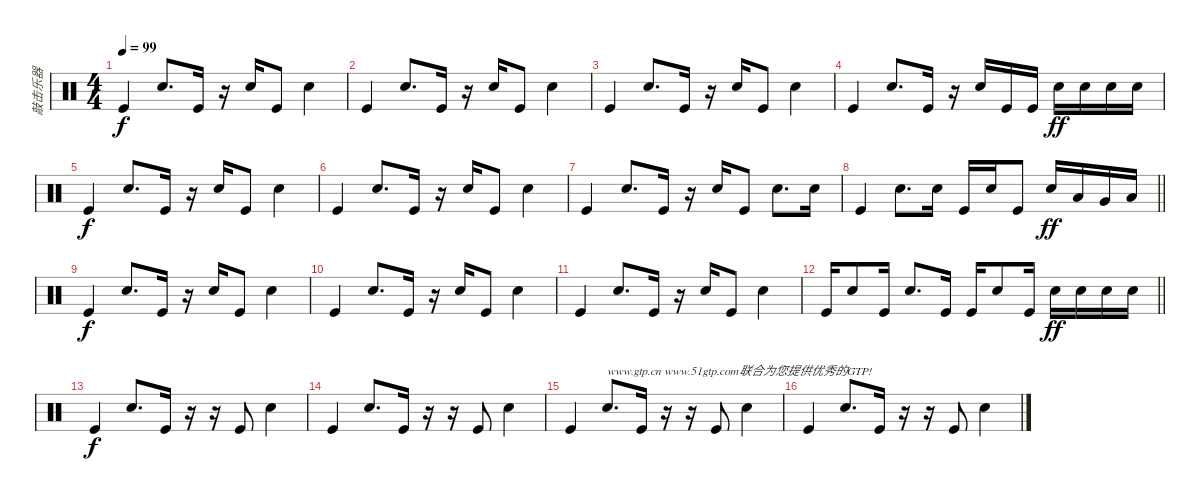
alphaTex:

\track ("敲击乐器" "敲击乐器") {instrument percussion}
\staff {score}
\articulation defaults
\ts (4 4)
\tempo 99
\clef neutral
\ks c "Kick (hit)".4{dy f} "Snare (hit) 2".8{d} "Kick (hit)".16
r.16 "Snare (hit) 2".16 "Kick (hit)".8 "Snare (hit) 2".4 |
"Kick (hit)".4 "Snare (hit) 2".8{d} "Kick (hit)".16 r.16 "Snare (hit) 2".16 "Kick (hit)".8 "Snare (hit) 2".4 |
"Kick (hit)".4 "Snare (hit) 2".8{d} "Kick (hit)".16 r.16 "Snare (hit) 2".16 "Kick (hit)".8 "Snare (hit) 2".4 |
"Kick (hit)".4 "Snare (hit) 2".8{d} "Kick (hit)".16 r.16 "Snare (hit) 2".16 "Kick (hit)".16 "Kick (hit)".16 "Snare (hit) 2".16{dy ff} "Snare (hit) 2".16 "Snare (hit) 2".16 "Snare (hit) 2".16 |
"Kick (hit)".4{dy f} "Snare (hit) 2".8{d} "Kick (hit)".16 r.16 "Snare (hit) 2".16 "Kick (hit)".8 "Snare (hit) 2".4 |
"Kick (hit)".4 "Snare (hit) 2".8{d} "Kick (hit)".16 r.16 "Snare (hit) 2".16 "Kick (hit)".8 "Snare (hit) 2".4 |
"Kick (hit)".4 "Snare (hit) 2".8{d} "Kick (hit)".16 r.16 "Snare (hit) 2".16 "Kick (hit)".8 "Snare (hit) 2".8{d} "Snare (hit) 2".16 |
\barLineRight lightlight "Kick (hit)".4 "Snare (hit) 2".8{d} "Snare (hit) 2".16 "Kick (hit)".16 "Snare (hit) 2".16 "Kick (hit)".8 "Snare (hit) 2".16{dy ff} "Low Tom (hit)".16 "Very Low Tom (hit)".16 "Low Floor Tom (hit)".16
|
"Kick (hit)".4{dy f} "Snare (hit) 2".8{d} "Kick (hit)".16 r.16 "Snare (hit) 2".16 "Kick (hit)".8 "Snare (hit) 2".4 |
"Kick (hit)".4 "Snare (hit) 2".8{d} "Kick (hit)".16 r.16 "Snare (hit) 2".16 "Kick (hit)".8 "Snare (hit) 2".4 |
"Kick (hit)".4 "Snare (hit) 2".8{d} "Kick (hit)".16 r.16 "Snare (hit) 2".16 "Kick (hit)".8 "Snare (hit) 2".4 |
\barLineRight lightlight "Kick (hit)".16 "Snare (hit) 2".8 "Kick (hit)".16 "Snare (hit) 2".8{d} "Kick (hit)".16 "Kick (hit)".16 "Snare (hit) 2".8 "Kick (hit)".16 "Snare (hit) 2".16{dy ff} "Snare (hit) 2".16 "Snare (hit) 2".16 "Snare (hit) 2".16
|
"Kick (hit)".4{dy f} "Snare (hit) 2".8{d} "Kick (hit)".16 r.16 r.16 "Kick (hit)".8 "Snare (hit) 2".4 |
"Kick (hit)".4 "Snare (hit) 2".8{d} "Kick (hit)".16 r.16 r.16 "Kick (hit)".8 "Snare (hit) 2".4 |
"Kick (hit)".4 "Snare (hit) 2".8{d txt "www.gtp.cn www.51gtp.com联合为您提供优秀的GTP!"} "Kick (hit)".16 r.16 r.16 "Kick (hit)".8 "Snare (hit) 2".4 |
"Kick (hit)".4 "Snare (hit) 2".8{d} "Kick (hit)".16 r.16 r.16 "Kick (hit)".8 "Snare (hit) 2".4
